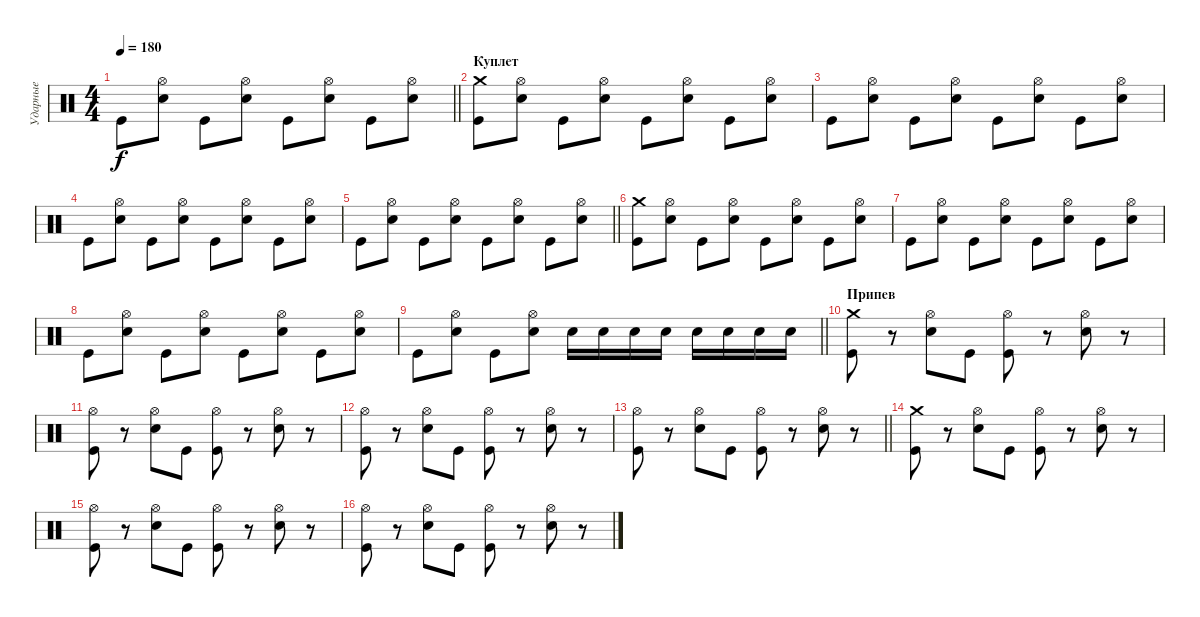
\track ("Ударные" "Ударные") {instrument percussion}
\staff {score}
\articulation defaults
\ts (4 4)
\tempo 180
\clef neutral
\barLineRight lightlight
\ks c "Kick (hit)".8{dy f}
("Hi-Hat (open)" "Electric Snare (hit)").8 "Kick (hit)".8 ("Hi-Hat (open)" "Electric Snare (hit)").8 "Kick (hit)".8 ("Hi-Hat (open)" "Electric Snare (hit)").8 "Kick (hit)".8 ("Hi-Hat (open)" "Electric Snare (hit)").8 |
\section ("" "Куплет")
("Crash medium (hit)" "Kick (hit)").8 ("Hi-Hat (open)" "Electric Snare (hit)").8 "Kick (hit)".8 ("Hi-Hat (open)" "Electric Snare (hit)").8 "Kick (hit)".8 ("Hi-Hat (open)" "Electric Snare (hit)").8 "Kick (hit)".8 ("Hi-Hat (open)" "Electric Snare (hit)").8 |
"Kick (hit)".8 ("Hi-Hat (open)" "Electric Snare (hit)").8 "Kick (hit)".8 ("Hi-Hat (open)" "Electric Snare (hit)").8 "Kick (hit)".8 ("Hi-Hat (open)" "Electric Snare (hit)").8 "Kick (hit)".8 ("Hi-Hat (open)" "Electric Snare (hit)").8 |
"Kick (hit)".8 ("Hi-Hat (open)" "Electric Snare (hit)").8 "Kick (hit)".8 ("Hi-Hat (open)" "Electric Snare (hit)").8 "Kick (hit)".8 ("Hi-Hat (open)" "Electric Snare (hit)").8 "Kick (hit)".8 ("Hi-Hat (open)" "Electric Snare (hit)").8 |
\barLineRight lightlight "Kick (hit)".8
("Hi-Hat (open)" "Electric Snare (hit)").8 "Kick (hit)".8 ("Hi-Hat (open)" "Electric Snare (hit)").8 "Kick (hit)".8 ("Hi-Hat (open)" "Electric Snare (hit)").8 "Kick (hit)".8 ("Hi-Hat (open)" "Electric Snare (hit)").8 |
("Crash medium (hit)" "Kick (hit)").8 ("Hi-Hat (open)" "Electric Snare (hit)").8 "Kick (hit)".8 ("Hi-Hat (open)" "Electric Snare (hit)").8 "Kick (hit)".8 ("Hi-Hat (open)" "Electric Snare (hit)").8 "Kick (hit)".8 ("Hi-Hat (open)" "Electric Snare (hit)").8 |
"Kick (hit)".8 ("Hi-Hat (open)" "Electric Snare (hit)").8 "Kick (hit)".8 ("Hi-Hat (open)" "Electric Snare (hit)").8 "Kick (hit)".8 ("Hi-Hat (open)" "Electric Snare (hit)").8 "Kick (hit)".8 ("Hi-Hat (open)" "Electric Snare (hit)").8 |
"Kick (hit)".8 ("Hi-Hat (open)" "Electric Snare (hit)").8 "Kick (hit)".8 ("Hi-Hat (open)" "Electric Snare (hit)").8 "Kick (hit)".8 ("Hi-Hat (open)" "Electric Snare (hit)").8 "Kick (hit)".8 ("Hi-Hat (open)" "Electric Snare (hit)").8 |
\barLineRight lightlight "Kick (hit)".8
("Hi-Hat (open)" "Electric Snare (hit)").8 "Kick (hit)".8 ("Hi-Hat (open)" "Electric Snare (hit)").8 "Electric Snare (hit)".16 "Electric Snare (hit)".16 "Electric Snare (hit)".16 "Electric Snare (hit)".16 "Electric Snare (hit)".16 "Electric Snare (hit)".16 "Electric Snare (hit)".16 "Electric Snare (hit)".16 |
\section ("" "Припев")
("Crash medium (hit)" "Kick (hit)").8 r.8 ("Hi-Hat (open)" "Electric Snare (hit)").8 "Kick (hit)".8 ("Hi-Hat (open)" "Kick (hit)").8 r.8 ("Hi-Hat (open)" "Electric Snare (hit)").8 r.8 |
("Hi-Hat (open)" "Kick (hit)").8 r.8 ("Hi-Hat (open)" "Electric Snare (hit)").8 "Kick (hit)".8 ("Hi-Hat (open)" "Kick (hit)").8 r.8 ("Hi-Hat (open)" "Electric Snare (hit)").8 r.8 |
("Hi-Hat (open)" "Kick (hit)").8 r.8 ("Hi-Hat (open)" "Electric Snare (hit)").8 "Kick (hit)".8 ("Hi-Hat (open)" "Kick (hit)").8 r.8 ("Hi-Hat (open)" "Electric Snare (hit)").8 r.8 |
\barLineRight lightlight
("Hi-Hat (open)" "Kick (hit)").8 r.8 ("Hi-Hat (open)" "Electric Snare (hit)").8 "Kick (hit)".8 ("Hi-Hat (open)" "Kick (hit)").8 r.8 ("Hi-Hat (open)" "Electric Snare (hit)").8 r.8 |
("Crash medium (hit)" "Kick (hit)").8 r.8 ("Hi-Hat (open)" "Electric Snare (hit)").8 "Kick (hit)".8 ("Hi-Hat (open)" "Kick (hit)").8 r.8 ("Hi-Hat (open)" "Electric Snare (hit)").8 r.8 |
("Hi-Hat (open)" "Kick (hit)").8 r.8 ("Hi-Hat (open)" "Electric Snare (hit)").8 "Kick (hit)".8 ("Hi-Hat (open)" "Kick (hit)").8 r.8 ("Hi-Hat (open)" "Electric Snare (hit)").8 r.8 |
("Hi-Hat (open)" "Kick (hit)").8 r.8 ("Hi-Hat (open)" "Electric Snare (hit)").8 "Kick (hit)".8 ("Hi-Hat (open)" "Kick (hit)").8 r.8 ("Hi-Hat (open)" "Electric Snare (hit)").8 r.8
